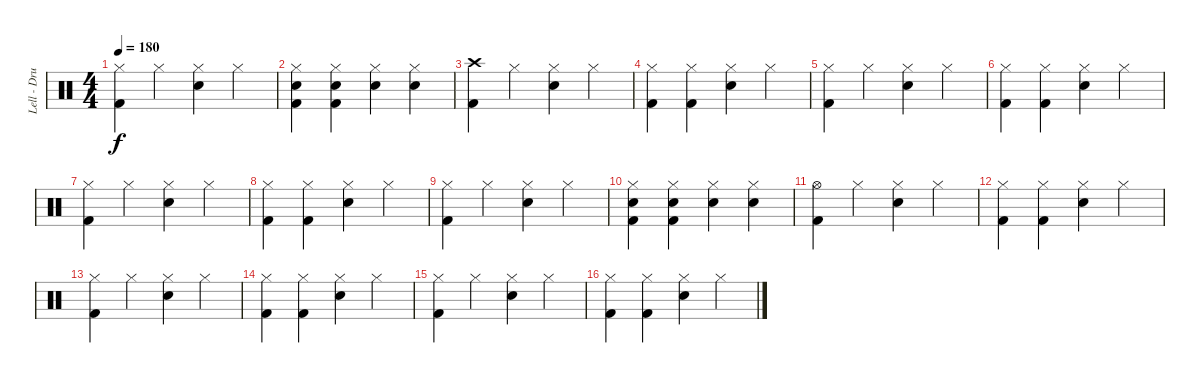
\track ("Lell - Drums" "Lell - Dru") {instrument percussion}
\staff {score}
\articulation defaults
\ts (4 4)
\tempo 180
\clef neutral
\ks c
("Hi-Hat (closed)" "Kick (hit) 2").4{dy f} "Hi-Hat (closed)".4 ("Hi-Hat (closed)" "Snare (hit) 2").4 "Hi-Hat (closed)".4 |
("Hi-Hat (closed)" "Snare (hit) 2" "Kick (hit) 2").4 ("Hi-Hat (closed)" "Snare (hit) 2" "Kick (hit) 2").4 ("Hi-Hat (closed)" "Snare (hit) 2").4 ("Hi-Hat (closed)" "Snare (hit) 2").4 |
("Crash high (hit)" "Kick (hit) 2").4 "Hi-Hat (closed)".4 ("Hi-Hat (closed)" "Snare (hit) 2").4 "Hi-Hat (closed)".4 |
("Hi-Hat (closed)" "Kick (hit) 2").4 ("Hi-Hat (closed)" "Kick (hit) 2").4 ("Hi-Hat (closed)" "Snare (hit) 2").4 "Hi-Hat (closed)".4 |
("Hi-Hat (closed)" "Kick (hit) 2").4 "Hi-Hat (closed)".4 ("Hi-Hat (closed)" "Snare (hit) 2").4 "Hi-Hat (closed)".4 |
("Hi-Hat (closed)" "Kick (hit) 2").4 ("Hi-Hat (closed)" "Kick (hit) 2").4 ("Hi-Hat (closed)" "Snare (hit) 2").4 "Hi-Hat (closed)".4 |
("Hi-Hat (closed)" "Kick (hit) 2").4 "Hi-Hat (closed)".4 ("Hi-Hat (closed)" "Snare (hit) 2").4 "Hi-Hat (closed)".4 |
("Hi-Hat (closed)" "Kick (hit) 2").4 ("Hi-Hat (closed)" "Kick (hit) 2").4 ("Hi-Hat (closed)" "Snare (hit) 2").4 "Hi-Hat (closed)".4 |
("Hi-Hat (closed)" "Kick (hit) 2").4 "Hi-Hat (closed)".4 ("Hi-Hat (closed)" "Snare (hit) 2").4 "Hi-Hat (closed)".4 |
("Hi-Hat (closed)" "Snare (hit) 2" "Kick (hit) 2").4 ("Hi-Hat (closed)" "Snare (hit) 2" "Kick (hit) 2").4 ("Hi-Hat (closed)" "Snare (hit) 2").4 ("Hi-Hat (closed)" "Snare (hit) 2").4 |
("Hi-Hat (open)" "Kick (hit) 2").4 "Hi-Hat (closed)".4 ("Hi-Hat (closed)" "Snare (hit) 2").4 "Hi-Hat (closed)".4 |
("Hi-Hat (closed)" "Kick (hit) 2").4 ("Hi-Hat (closed)" "Kick (hit) 2").4 ("Hi-Hat (closed)" "Snare (hit) 2").4 "Hi-Hat (closed)".4 |
("Hi-Hat (closed)" "Kick (hit) 2").4 "Hi-Hat (closed)".4 ("Hi-Hat (closed)" "Snare (hit) 2").4 "Hi-Hat (closed)".4 |
("Hi-Hat (closed)" "Kick (hit) 2").4 ("Hi-Hat (closed)" "Kick (hit) 2").4 ("Hi-Hat (closed)" "Snare (hit) 2").4 "Hi-Hat (closed)".4 |
("Hi-Hat (closed)" "Kick (hit) 2").4 "Hi-Hat (closed)".4 ("Hi-Hat (closed)" "Snare (hit) 2").4 "Hi-Hat (closed)".4 |
("Hi-Hat (closed)" "Kick (hit) 2").4 ("Hi-Hat (closed)" "Kick (hit) 2").4 ("Hi-Hat (closed)" "Snare (hit) 2").4 "Hi-Hat (closed)".4
